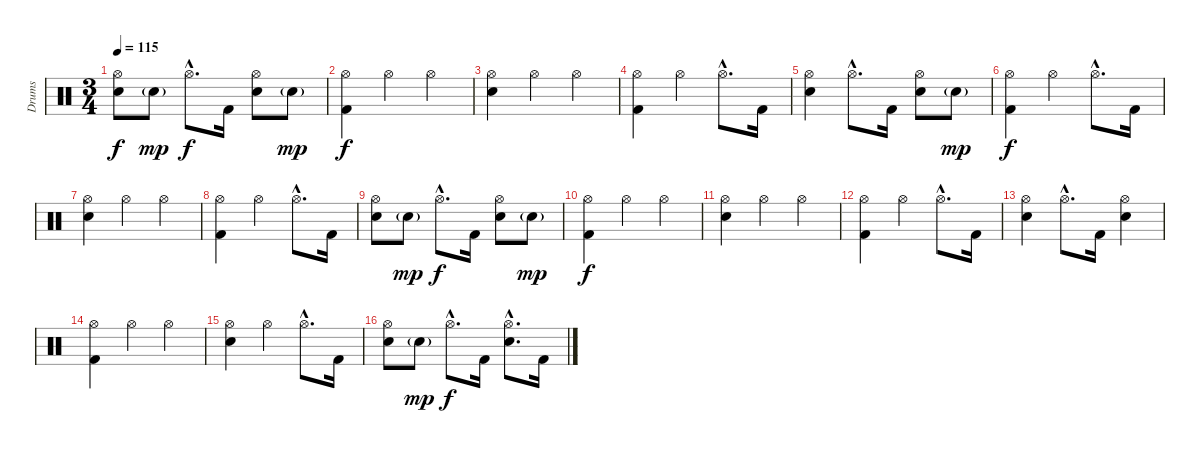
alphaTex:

\track ("Drums" "Drums") {instrument percussion}
\staff {score}
\articulation defaults
\ts (3 4)
\tempo 115
\clef neutral
\ks c
("Hi-Hat (open)" "Electric Snare (hit)").8{dy f} "Electric Snare (hit)"{g}.8{dy mp} "Hi-Hat (open)"{hac}.8{d dy f} "Kick (hit) 2".16 ("Hi-Hat (open)" "Electric Snare (hit)").8 "Electric Snare (hit)"{g}.8{dy mp} |
("Hi-Hat (open)" "Kick (hit) 2").4{dy f} "Hi-Hat (open)".4 "Hi-Hat (open)".4 |
("Hi-Hat (open)" "Electric Snare (hit)").4 "Hi-Hat (open)".4 "Hi-Hat (open)".4 |
("Hi-Hat (open)" "Kick (hit) 2").4 "Hi-Hat (open)".4 "Hi-Hat (open)"{hac}.8{d} "Kick (hit) 2".16 |
("Hi-Hat (open)" "Electric Snare (hit)").4 "Hi-Hat (open)"{hac}.8{d} "Kick (hit) 2".16 ("Hi-Hat (open)" "Electric Snare (hit)").8 "Electric Snare (hit)"{g}.8{dy mp} |
("Hi-Hat (open)" "Kick (hit) 2").4{dy f} "Hi-Hat (open)".4 "Hi-Hat (open)"{hac}.8{d} "Kick (hit) 2".16 |
("Hi-Hat (open)" "Electric Snare (hit)").4 "Hi-Hat (open)".4 "Hi-Hat (open)".4 |
("Hi-Hat (open)" "Kick (hit) 2").4 "Hi-Hat (open)".4 "Hi-Hat (open)"{hac}.8{d} "Kick (hit) 2".16 |
("Hi-Hat (open)" "Electric Snare (hit)").8 "Electric Snare (hit)"{g}.8{dy mp} "Hi-Hat (open)"{hac}.8{d dy f} "Kick (hit) 2".16 ("Hi-Hat (open)" "Electric Snare (hit)").8 "Electric Snare (hit)"{g}.8{dy mp} |
("Hi-Hat (open)" "Kick (hit) 2").4{dy f} "Hi-Hat (open)".4 "Hi-Hat (open)".4 |
("Hi-Hat (open)" "Electric Snare (hit)").4 "Hi-Hat (open)".4 "Hi-Hat (open)".4 |
("Hi-Hat (open)" "Kick (hit) 2").4 "Hi-Hat (open)".4 "Hi-Hat (open)"{hac}.8{d} "Kick (hit) 2".16 |
("Hi-Hat (open)" "Electric Snare (hit)").4 "Hi-Hat (open)"{hac}.8{d} "Kick (hit) 2".16 ("Hi-Hat (open)" "Electric Snare (hit)").4 |
("Hi-Hat (open)" "Kick (hit) 2").4 "Hi-Hat (open)".4 "Hi-Hat (open)".4 |
("Hi-Hat (open)" "Electric Snare (hit)").4 "Hi-Hat (open)".4 "Hi-Hat (open)"{hac}.8{d} "Kick (hit) 2".16 |
("Hi-Hat (open)" "Electric Snare (hit)").8 "Electric Snare (hit)"{g}.8{dy mp} "Hi-Hat (open)"{hac}.8{d dy f} "Kick (hit) 2".16 ("Hi-Hat (open)"{hac} "Electric Snare (hit)"{hac}).8{d} "Kick (hit) 2".16
